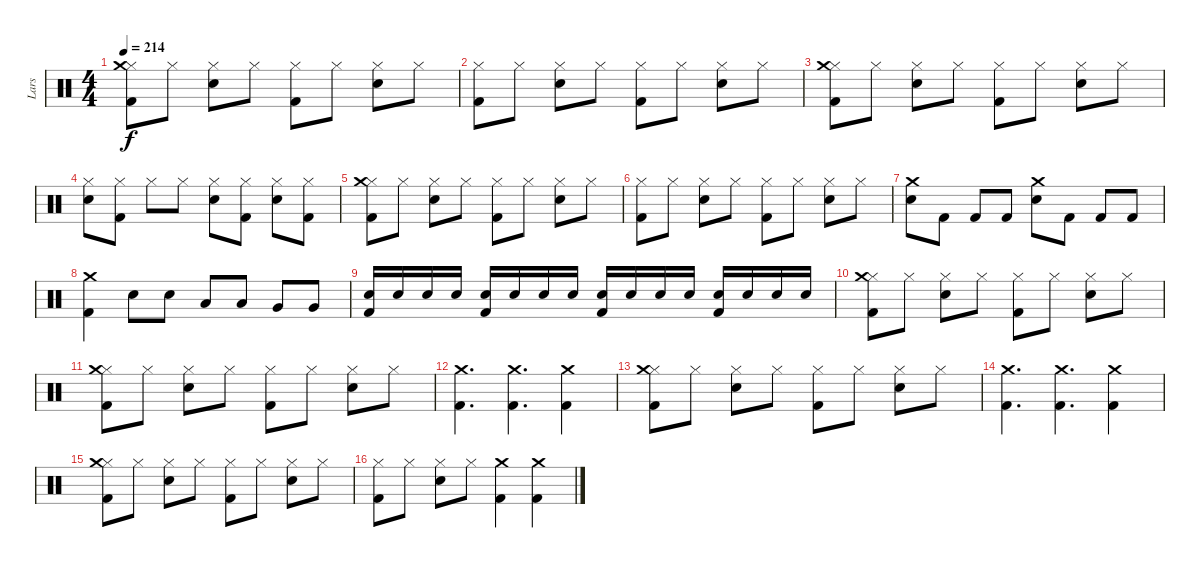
\track ("Lars" "Lars") {instrument percussion}
\staff {score}
\articulation defaults
\ts (4 4)
\tempo 214
\clef neutral
\ks c
("Hi-Hat (closed)" "Kick (hit) 2" "Crash medium (hit)").8{dy f} "Hi-Hat (closed)".8 ("Hi-Hat (closed)" "Snare (hit) 2").8 "Hi-Hat (closed)".8 ("Hi-Hat (closed)" "Kick (hit) 2").8 "Hi-Hat (closed)".8 ("Hi-Hat (closed)" "Snare (hit) 2").8 "Hi-Hat (closed)".8 |
("Hi-Hat (closed)" "Kick (hit) 2").8 "Hi-Hat (closed)".8 ("Hi-Hat (closed)" "Snare (hit) 2").8 "Hi-Hat (closed)".8 ("Hi-Hat (closed)" "Kick (hit) 2").8 "Hi-Hat (closed)".8 ("Hi-Hat (closed)" "Snare (hit) 2").8 "Hi-Hat (closed)".8 |
("Hi-Hat (closed)" "Kick (hit) 2" "Crash medium (hit)").8 "Hi-Hat (closed)".8 ("Hi-Hat (closed)" "Snare (hit) 2").8 "Hi-Hat (closed)".8 ("Hi-Hat (closed)" "Kick (hit) 2").8 "Hi-Hat (closed)".8 ("Hi-Hat (closed)" "Snare (hit) 2").8 "Hi-Hat (closed)".8 |
("Hi-Hat (closed)" "Snare (hit) 2").8 ("Hi-Hat (closed)" "Kick (hit) 2").8 "Hi-Hat (closed)".8 "Hi-Hat (closed)".8 ("Hi-Hat (closed)" "Snare (hit) 2").8 ("Hi-Hat (closed)" "Kick (hit) 2").8 ("Hi-Hat (closed)" "Snare (hit) 2").8 ("Hi-Hat (closed)" "Kick (hit) 2").8 |
("Hi-Hat (closed)" "Kick (hit) 2" "Crash medium (hit)").8 "Hi-Hat (closed)".8 ("Hi-Hat (closed)" "Snare (hit) 2").8 "Hi-Hat (closed)".8 ("Hi-Hat (closed)" "Kick (hit) 2").8 "Hi-Hat (closed)".8 ("Hi-Hat (closed)" "Snare (hit) 2").8 "Hi-Hat (closed)".8 |
("Hi-Hat (closed)" "Kick (hit) 2").8 "Hi-Hat (closed)".8 ("Hi-Hat (closed)" "Snare (hit) 2").8 "Hi-Hat (closed)".8 ("Hi-Hat (closed)" "Kick (hit) 2").8 "Hi-Hat (closed)".8 ("Hi-Hat (closed)" "Snare (hit) 2").8 "Hi-Hat (closed)".8 |
("Snare (hit) 2" "Crash medium (hit)").8 "Kick (hit) 2".8 "Kick (hit) 2".8 "Kick (hit) 2".8 ("Snare (hit) 2" "Crash medium (hit)").8 "Kick (hit) 2".8 "Kick (hit) 2".8 "Kick (hit) 2".8 |
("Kick (hit) 2" "Crash medium (hit)").4 "Snare (hit) 2".8 "Snare (hit) 2".8 "Low Tom (hit)".8 "Low Tom (hit)".8 "Very Low Tom (hit)".8 "Very Low Tom (hit)".8 |
("Snare (hit) 2" "Kick (hit) 2").16{volume 7} "Snare (hit) 2".16 "Snare (hit) 2".16 "Snare (hit) 2".16 ("Snare (hit) 2" "Kick (hit) 2").16{volume 9} "Snare (hit) 2".16 "Snare (hit) 2".16 "Snare (hit) 2".16 ("Snare (hit) 2" "Kick (hit) 2").16{volume 11} "Snare (hit) 2".16 "Snare (hit) 2".16 "Snare (hit) 2".16 ("Snare (hit) 2" "Kick (hit) 2").16{volume 13} "Snare (hit) 2".16 "Snare (hit) 2".16 "Snare (hit) 2".16 |
("Hi-Hat (closed)" "Kick (hit) 2" "Crash medium (hit)").8 "Hi-Hat (closed)".8 ("Hi-Hat (closed)" "Snare (hit) 2").8 "Hi-Hat (closed)".8 ("Hi-Hat (closed)" "Kick (hit) 2").8 "Hi-Hat (closed)".8 ("Hi-Hat (closed)" "Snare (hit) 2").8 "Hi-Hat (closed)".8 |
("Hi-Hat (closed)" "Kick (hit) 2" "Crash medium (hit)").8 "Hi-Hat (closed)".8 ("Hi-Hat (closed)" "Snare (hit) 2").8 "Hi-Hat (closed)".8 ("Hi-Hat (closed)" "Kick (hit) 2").8 "Hi-Hat (closed)".8 ("Hi-Hat (closed)" "Snare (hit) 2").8 "Hi-Hat (closed)".8 |
("Kick (hit) 2" "Crash medium (hit)").4{d} ("Crash medium (hit)" "Kick (hit) 2").4{d} ("Kick (hit) 2" "Crash medium (hit)").4 |
("Hi-Hat (closed)" "Kick (hit) 2" "Crash medium (hit)").8 "Hi-Hat (closed)".8 ("Hi-Hat (closed)" "Snare (hit) 2").8 "Hi-Hat (closed)".8 ("Hi-Hat (closed)" "Kick (hit) 2").8 "Hi-Hat (closed)".8 ("Hi-Hat (closed)" "Snare (hit) 2").8 "Hi-Hat (closed)".8 |
("Kick (hit) 2" "Crash medium (hit)").4{d} ("Crash medium (hit)" "Kick (hit) 2").4{d} ("Kick (hit) 2" "Crash medium (hit)").4 |
("Hi-Hat (closed)" "Kick (hit) 2" "Crash medium (hit)").8 "Hi-Hat (closed)".8 ("Hi-Hat (closed)" "Snare (hit) 2").8 "Hi-Hat (closed)".8 ("Hi-Hat (closed)" "Kick (hit) 2").8 "Hi-Hat (closed)".8 ("Hi-Hat (closed)" "Snare (hit) 2").8 "Hi-Hat (closed)".8 |
("Hi-Hat (closed)" "Kick (hit) 2").8 "Hi-Hat (closed)".8 ("Hi-Hat (closed)" "Snare (hit) 2").8 "Hi-Hat (closed)".8 ("Kick (hit) 2" "Crash medium (hit)").4 ("Kick (hit) 2" "Crash medium (hit)").4
